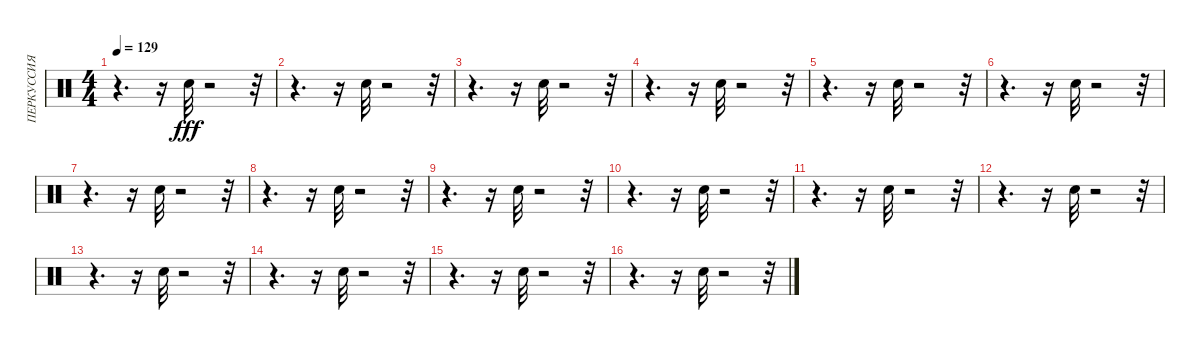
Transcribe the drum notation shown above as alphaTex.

\track ("ПЕРКУССИЯ" "ПЕРКУССИЯ") {instrument percussion}
\staff {score}
\articulation defaults
\ts (4 4)
\tempo 129
\clef neutral
\ks c
r.4{d dy fff} r.16 "Snare (hit) 2".32 r.2 r.32 |
r.4{d} r.16 "Snare (hit) 2".32 r.2 r.32 |
r.4{d} r.16 "Snare (hit) 2".32 r.2 r.32 |
r.4{d} r.16 "Snare (hit) 2".32 r.2 r.32 |
r.4{d} r.16 "Snare (hit) 2".32 r.2 r.32 |
r.4{d} r.16 "Snare (hit) 2".32 r.2 r.32 |
r.4{d} r.16 "Snare (hit) 2".32 r.2 r.32 |
r.4{d} r.16 "Snare (hit) 2".32 r.2 r.32 |
r.4{d} r.16 "Snare (hit) 2".32 r.2 r.32 |
r.4{d} r.16 "Snare (hit) 2".32 r.2 r.32 |
r.4{d} r.16 "Snare (hit) 2".32 r.2 r.32 |
r.4{d} r.16 "Snare (hit) 2".32 r.2 r.32 |
r.4{d} r.16 "Snare (hit) 2".32 r.2 r.32 |
r.4{d} r.16 "Snare (hit) 2".32 r.2 r.32 |
r.4{d} r.16 "Snare (hit) 2".32 r.2 r.32 |
r.4{d} r.16 "Snare (hit) 2".32 r.2 r.32
